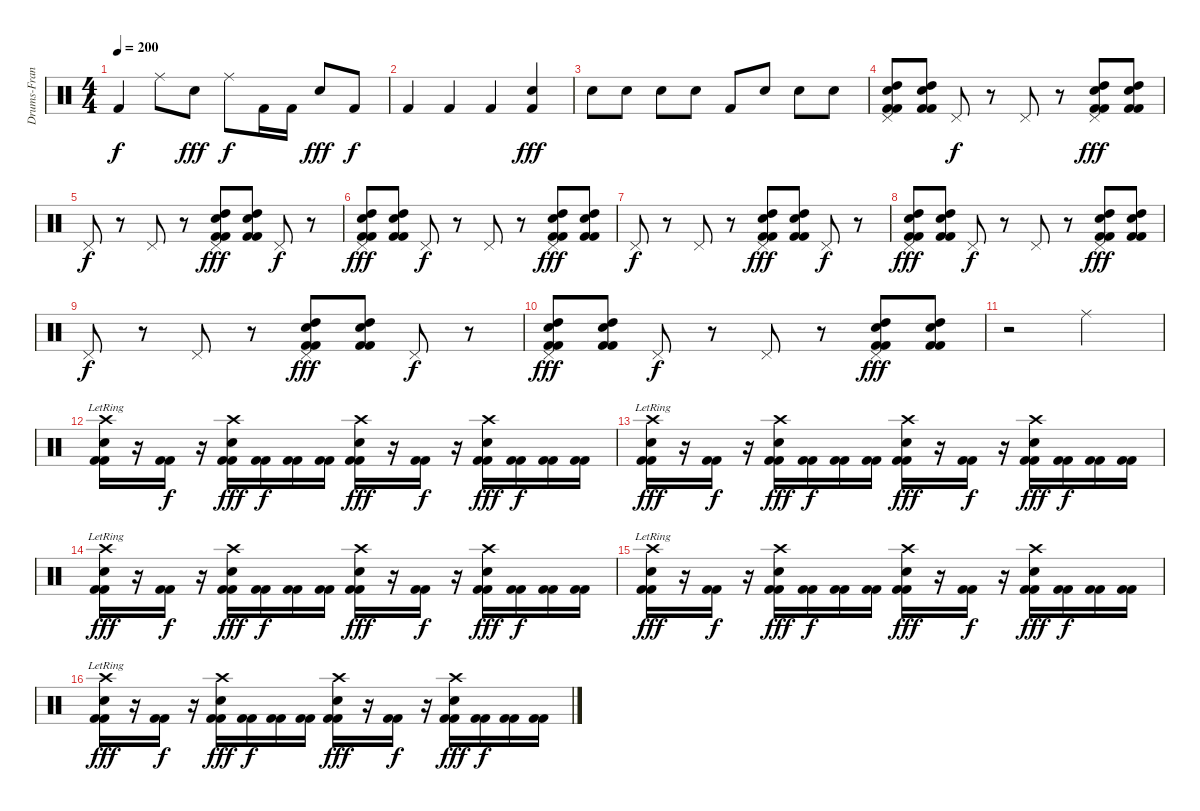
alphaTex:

\track ("Drums-Francis Mark" "Drums-Fran") {instrument percussion}
\staff {score}
\articulation defaults
\ts (4 4)
\tempo 200
\clef neutral
\ks c "Kick (hit) 2".4{dy f} "Ride (middle)".8 "Electric Snare (hit)".8{dy fff} "Ride (middle)".8{dy f} "Kick (hit) 2".16 "Kick (hit) 2".16 "Electric Snare (hit)".8{dy fff} "Kick (hit) 2".8{dy f}
|
"Kick (hit) 2".4 "Kick (hit) 2".4 "Kick (hit) 2".4 ("Electric Snare (hit)" "Kick (hit) 2").4{dy fff} |
"Electric Snare (hit)".8 "Electric Snare (hit)".8 "Electric Snare (hit)".8 "Electric Snare (hit)".8 "Kick (hit) 2".8 "Electric Snare (hit)".8 "Electric Snare (hit)".8 "Electric Snare (hit)".8 |
("Pedal Hi-Hat (hit)" "High Tom (hit)" "Electric Snare (hit)" "Kick (hit) 2" "Kick (hit) 2").8 ("High Tom (hit)" "Electric Snare (hit)" "Kick (hit) 2" "Kick (hit) 2").8 "Pedal Hi-Hat (hit)".8{dy f} r.8 "Pedal Hi-Hat (hit)".8 r.8 ("Pedal Hi-Hat (hit)" "High Tom (hit)" "Electric Snare (hit)" "Kick (hit) 2" "Kick (hit) 2").8{dy fff} ("High Tom (hit)" "Electric Snare (hit)" "Kick (hit) 2" "Kick (hit) 2").8 |
"Pedal Hi-Hat (hit)".8{dy f} r.8 "Pedal Hi-Hat (hit)".8 r.8 ("Pedal Hi-Hat (hit)" "High Tom (hit)" "Electric Snare (hit)" "Kick (hit) 2" "Kick (hit) 2").8{dy fff} ("High Tom (hit)" "Electric Snare (hit)" "Kick (hit) 2" "Kick (hit) 2").8 "Pedal Hi-Hat (hit)".8{dy f} r.8 |
("Pedal Hi-Hat (hit)" "High Tom (hit)" "Electric Snare (hit)" "Kick (hit) 2" "Kick (hit) 2").8{dy fff} ("High Tom (hit)" "Electric Snare (hit)" "Kick (hit) 2" "Kick (hit) 2").8 "Pedal Hi-Hat (hit)".8{dy f} r.8 "Pedal Hi-Hat (hit)".8 r.8 ("Pedal Hi-Hat (hit)" "High Tom (hit)" "Electric Snare (hit)" "Kick (hit) 2" "Kick (hit) 2").8{dy fff} ("High Tom (hit)" "Electric Snare (hit)" "Kick (hit) 2" "Kick (hit) 2").8 |
"Pedal Hi-Hat (hit)".8{dy f} r.8 "Pedal Hi-Hat (hit)".8 r.8 ("Pedal Hi-Hat (hit)" "High Tom (hit)" "Electric Snare (hit)" "Kick (hit) 2" "Kick (hit) 2").8{dy fff} ("High Tom (hit)" "Electric Snare (hit)" "Kick (hit) 2" "Kick (hit) 2").8 "Pedal Hi-Hat (hit)".8{dy f} r.8 |
("Pedal Hi-Hat (hit)" "High Tom (hit)" "Electric Snare (hit)" "Kick (hit) 2" "Kick (hit) 2").8{dy fff} ("High Tom (hit)" "Electric Snare (hit)" "Kick (hit) 2" "Kick (hit) 2").8 "Pedal Hi-Hat (hit)".8{dy f} r.8 "Pedal Hi-Hat (hit)".8 r.8 ("Pedal Hi-Hat (hit)" "High Tom (hit)" "Electric Snare (hit)" "Kick (hit) 2" "Kick (hit) 2").8{dy fff} ("High Tom (hit)" "Electric Snare (hit)" "Kick (hit) 2" "Kick (hit) 2").8 |
"Pedal Hi-Hat (hit)".8{dy f} r.8 "Pedal Hi-Hat (hit)".8 r.8 ("Pedal Hi-Hat (hit)" "High Tom (hit)" "Electric Snare (hit)" "Kick (hit) 2" "Kick (hit) 2").8{dy fff} ("High Tom (hit)" "Electric Snare (hit)" "Kick (hit) 2" "Kick (hit) 2").8 "Pedal Hi-Hat (hit)".8{dy f} r.8 |
("Pedal Hi-Hat (hit)" "High Tom (hit)" "Electric Snare (hit)" "Kick (hit) 2" "Kick (hit) 2").8{dy fff} ("High Tom (hit)" "Electric Snare (hit)" "Kick (hit) 2" "Kick (hit) 2").8 "Pedal Hi-Hat (hit)".8{dy f} r.8 "Pedal Hi-Hat (hit)".8 r.8 ("Pedal Hi-Hat (hit)" "High Tom (hit)" "Electric Snare (hit)" "Kick (hit) 2" "Kick (hit) 2").8{dy fff} ("High Tom (hit)" "Electric Snare (hit)" "Kick (hit) 2" "Kick (hit) 2").8 |
r.2 "Ride (middle)".2 |
("Crash high (hit)"{lr} "Electric Snare (hit)" "Kick (hit) 2" "Kick (hit) 2").16 r.16 ("Kick (hit) 2" "Kick (hit) 2").16{dy f} r.16 ("Crash high (hit)" "Electric Snare (hit)" "Kick (hit) 2" "Kick (hit) 2").16{dy fff} ("Kick (hit) 2" "Kick (hit) 2").16{dy f} ("Kick (hit) 2" "Kick (hit) 2").16 ("Kick (hit) 2" "Kick (hit) 2").16 ("Crash high (hit)" "Electric Snare (hit)" "Kick (hit) 2" "Kick (hit) 2").16{dy fff} r.16 ("Kick (hit) 2" "Kick (hit) 2").16{dy f} r.16 ("Crash high (hit)" "Electric Snare (hit)" "Kick (hit) 2" "Kick (hit) 2").16{dy fff} ("Kick (hit) 2" "Kick (hit) 2").16{dy f} ("Kick (hit) 2" "Kick (hit) 2").16 ("Kick (hit) 2" "Kick (hit) 2").16 |
("Crash high (hit)"{lr} "Electric Snare (hit)" "Kick (hit) 2" "Kick (hit) 2").16{dy fff} r.16 ("Kick (hit) 2" "Kick (hit) 2").16{dy f} r.16 ("Crash high (hit)" "Electric Snare (hit)" "Kick (hit) 2" "Kick (hit) 2").16{dy fff} ("Kick (hit) 2" "Kick (hit) 2").16{dy f} ("Kick (hit) 2" "Kick (hit) 2").16 ("Kick (hit) 2" "Kick (hit) 2").16 ("Crash high (hit)" "Electric Snare (hit)" "Kick (hit) 2" "Kick (hit) 2").16{dy fff} r.16 ("Kick (hit) 2" "Kick (hit) 2").16{dy f} r.16 ("Crash high (hit)" "Electric Snare (hit)" "Kick (hit) 2" "Kick (hit) 2").16{dy fff} ("Kick (hit) 2" "Kick (hit) 2").16{dy f} ("Kick (hit) 2" "Kick (hit) 2").16 ("Kick (hit) 2" "Kick (hit) 2").16 |
("Crash high (hit)"{lr} "Electric Snare (hit)" "Kick (hit) 2" "Kick (hit) 2").16{dy fff} r.16 ("Kick (hit) 2" "Kick (hit) 2").16{dy f} r.16 ("Crash high (hit)" "Electric Snare (hit)" "Kick (hit) 2" "Kick (hit) 2").16{dy fff} ("Kick (hit) 2" "Kick (hit) 2").16{dy f} ("Kick (hit) 2" "Kick (hit) 2").16 ("Kick (hit) 2" "Kick (hit) 2").16 ("Crash high (hit)" "Electric Snare (hit)" "Kick (hit) 2" "Kick (hit) 2").16{dy fff} r.16 ("Kick (hit) 2" "Kick (hit) 2").16{dy f} r.16 ("Crash high (hit)" "Electric Snare (hit)" "Kick (hit) 2" "Kick (hit) 2").16{dy fff} ("Kick (hit) 2" "Kick (hit) 2").16{dy f} ("Kick (hit) 2" "Kick (hit) 2").16 ("Kick (hit) 2" "Kick (hit) 2").16 |
("Crash high (hit)"{lr} "Electric Snare (hit)" "Kick (hit) 2" "Kick (hit) 2").16{dy fff} r.16 ("Kick (hit) 2" "Kick (hit) 2").16{dy f} r.16 ("Crash high (hit)" "Electric Snare (hit)" "Kick (hit) 2" "Kick (hit) 2").16{dy fff} ("Kick (hit) 2" "Kick (hit) 2").16{dy f} ("Kick (hit) 2" "Kick (hit) 2").16 ("Kick (hit) 2" "Kick (hit) 2").16 ("Crash high (hit)" "Electric Snare (hit)" "Kick (hit) 2" "Kick (hit) 2").16{dy fff} r.16 ("Kick (hit) 2" "Kick (hit) 2").16{dy f} r.16 ("Crash high (hit)" "Electric Snare (hit)" "Kick (hit) 2" "Kick (hit) 2").16{dy fff} ("Kick (hit) 2" "Kick (hit) 2").16{dy f} ("Kick (hit) 2" "Kick (hit) 2").16 ("Kick (hit) 2" "Kick (hit) 2").16 |
("Crash high (hit)"{lr} "Electric Snare (hit)" "Kick (hit) 2" "Kick (hit) 2").16{dy fff} r.16 ("Kick (hit) 2" "Kick (hit) 2").16{dy f} r.16 ("Crash high (hit)" "Electric Snare (hit)" "Kick (hit) 2" "Kick (hit) 2").16{dy fff} ("Kick (hit) 2" "Kick (hit) 2").16{dy f} ("Kick (hit) 2" "Kick (hit) 2").16 ("Kick (hit) 2" "Kick (hit) 2").16 ("Crash high (hit)" "Electric Snare (hit)" "Kick (hit) 2" "Kick (hit) 2").16{dy fff} r.16 ("Kick (hit) 2" "Kick (hit) 2").16{dy f} r.16 ("Crash high (hit)" "Electric Snare (hit)" "Kick (hit) 2" "Kick (hit) 2").16{dy fff} ("Kick (hit) 2" "Kick (hit) 2").16{dy f} ("Kick (hit) 2" "Kick (hit) 2").16 ("Kick (hit) 2" "Kick (hit) 2").16
